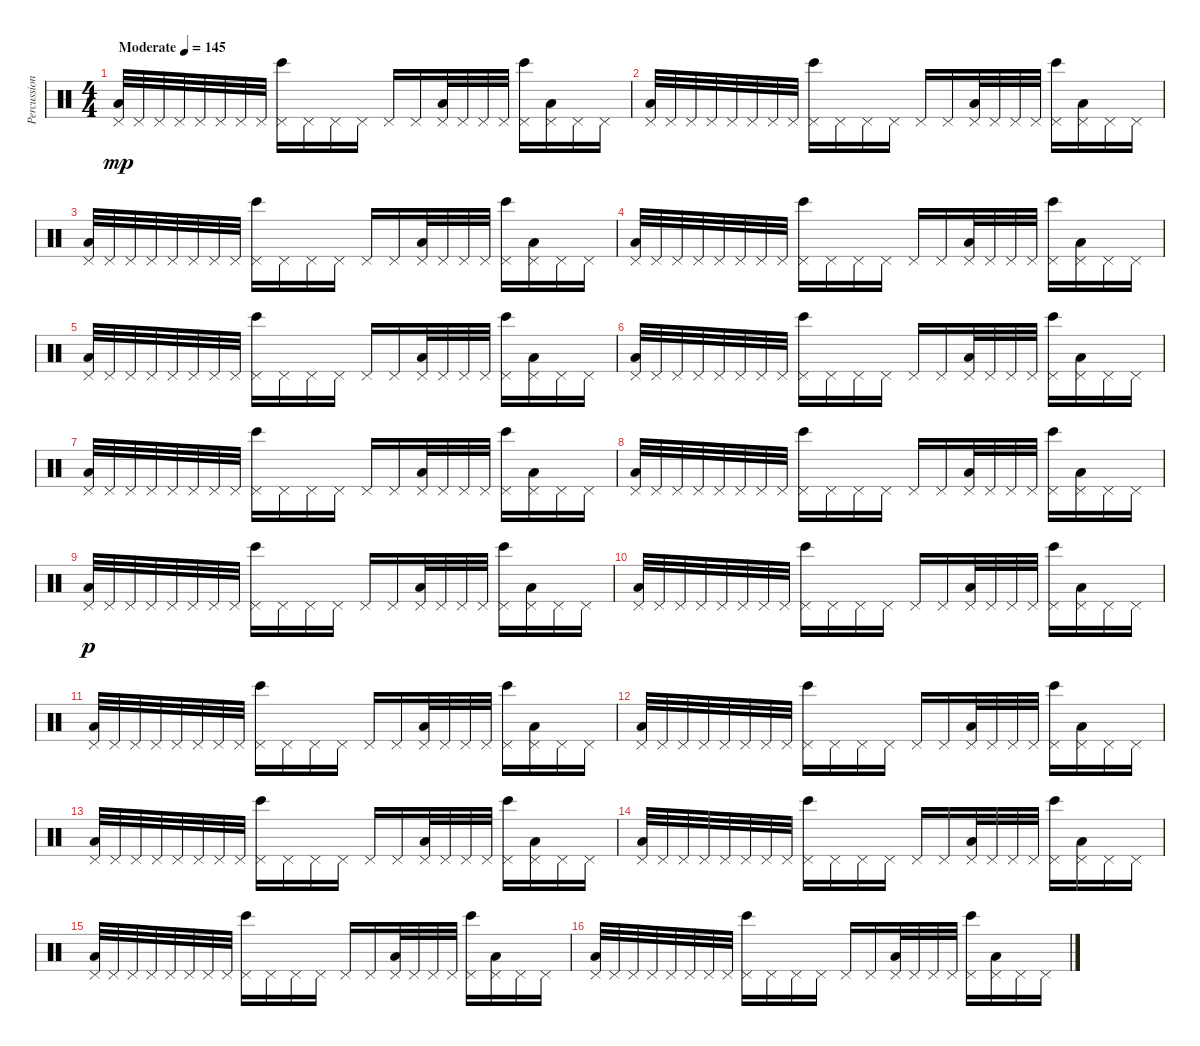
\track ("Percussion" "Percussion") {instrument percussion}
\staff {score}
\articulation defaults
\ts (4 4)
\tempo (145 "Moderate")
\clef neutral
\ks c
("Pedal Hi-Hat (hit)" "Low Tom (hit)").32{dy mp} "Pedal Hi-Hat (hit)".32 "Pedal Hi-Hat (hit)".32 "Pedal Hi-Hat (hit)".32 "Pedal Hi-Hat (hit)".32 "Pedal Hi-Hat (hit)".32 "Pedal Hi-Hat (hit)".32 "Pedal Hi-Hat (hit)".32 ("Pedal Hi-Hat (hit)" "Bongo High (hit)").16 "Pedal Hi-Hat (hit)".16 "Pedal Hi-Hat (hit)".16 "Pedal Hi-Hat (hit)".16 "Pedal Hi-Hat (hit)".16 "Pedal Hi-Hat (hit)".16 ("Pedal Hi-Hat (hit)" "Low Tom (hit)").32 "Pedal Hi-Hat (hit)".32 "Pedal Hi-Hat (hit)".32 "Pedal Hi-Hat (hit)".32 ("Pedal Hi-Hat (hit)" "Bongo High (hit)").16 ("Pedal Hi-Hat (hit)" "Low Tom (hit)").16 "Pedal Hi-Hat (hit)".16 "Pedal Hi-Hat (hit)".16 |
("Pedal Hi-Hat (hit)" "Low Tom (hit)").32 "Pedal Hi-Hat (hit)".32 "Pedal Hi-Hat (hit)".32 "Pedal Hi-Hat (hit)".32 "Pedal Hi-Hat (hit)".32 "Pedal Hi-Hat (hit)".32 "Pedal Hi-Hat (hit)".32 "Pedal Hi-Hat (hit)".32 ("Pedal Hi-Hat (hit)" "Bongo High (hit)").16 "Pedal Hi-Hat (hit)".16 "Pedal Hi-Hat (hit)".16 "Pedal Hi-Hat (hit)".16 "Pedal Hi-Hat (hit)".16 "Pedal Hi-Hat (hit)".16 ("Pedal Hi-Hat (hit)" "Low Tom (hit)").32 "Pedal Hi-Hat (hit)".32 "Pedal Hi-Hat (hit)".32 "Pedal Hi-Hat (hit)".32 ("Pedal Hi-Hat (hit)" "Bongo High (hit)").16 ("Pedal Hi-Hat (hit)" "Low Tom (hit)").16 "Pedal Hi-Hat (hit)".16 "Pedal Hi-Hat (hit)".16 |
("Pedal Hi-Hat (hit)" "Low Tom (hit)").32 "Pedal Hi-Hat (hit)".32 "Pedal Hi-Hat (hit)".32 "Pedal Hi-Hat (hit)".32 "Pedal Hi-Hat (hit)".32 "Pedal Hi-Hat (hit)".32 "Pedal Hi-Hat (hit)".32 "Pedal Hi-Hat (hit)".32 ("Pedal Hi-Hat (hit)" "Bongo High (hit)").16 "Pedal Hi-Hat (hit)".16 "Pedal Hi-Hat (hit)".16 "Pedal Hi-Hat (hit)".16 "Pedal Hi-Hat (hit)".16 "Pedal Hi-Hat (hit)".16 ("Pedal Hi-Hat (hit)" "Low Tom (hit)").32 "Pedal Hi-Hat (hit)".32 "Pedal Hi-Hat (hit)".32 "Pedal Hi-Hat (hit)".32 ("Pedal Hi-Hat (hit)" "Bongo High (hit)").16 ("Pedal Hi-Hat (hit)" "Low Tom (hit)").16 "Pedal Hi-Hat (hit)".16 "Pedal Hi-Hat (hit)".16 |
("Pedal Hi-Hat (hit)" "Low Tom (hit)").32 "Pedal Hi-Hat (hit)".32 "Pedal Hi-Hat (hit)".32 "Pedal Hi-Hat (hit)".32 "Pedal Hi-Hat (hit)".32 "Pedal Hi-Hat (hit)".32 "Pedal Hi-Hat (hit)".32 "Pedal Hi-Hat (hit)".32 ("Pedal Hi-Hat (hit)" "Bongo High (hit)").16 "Pedal Hi-Hat (hit)".16 "Pedal Hi-Hat (hit)".16 "Pedal Hi-Hat (hit)".16 "Pedal Hi-Hat (hit)".16 "Pedal Hi-Hat (hit)".16 ("Pedal Hi-Hat (hit)" "Low Tom (hit)").32 "Pedal Hi-Hat (hit)".32 "Pedal Hi-Hat (hit)".32 "Pedal Hi-Hat (hit)".32 ("Pedal Hi-Hat (hit)" "Bongo High (hit)").16 ("Pedal Hi-Hat (hit)" "Low Tom (hit)").16 "Pedal Hi-Hat (hit)".16 "Pedal Hi-Hat (hit)".16 |
("Pedal Hi-Hat (hit)" "Low Tom (hit)").32 "Pedal Hi-Hat (hit)".32 "Pedal Hi-Hat (hit)".32 "Pedal Hi-Hat (hit)".32 "Pedal Hi-Hat (hit)".32 "Pedal Hi-Hat (hit)".32 "Pedal Hi-Hat (hit)".32 "Pedal Hi-Hat (hit)".32 ("Pedal Hi-Hat (hit)" "Bongo High (hit)").16 "Pedal Hi-Hat (hit)".16 "Pedal Hi-Hat (hit)".16 "Pedal Hi-Hat (hit)".16 "Pedal Hi-Hat (hit)".16 "Pedal Hi-Hat (hit)".16 ("Pedal Hi-Hat (hit)" "Low Tom (hit)").32 "Pedal Hi-Hat (hit)".32 "Pedal Hi-Hat (hit)".32 "Pedal Hi-Hat (hit)".32 ("Pedal Hi-Hat (hit)" "Bongo High (hit)").16 ("Pedal Hi-Hat (hit)" "Low Tom (hit)").16 "Pedal Hi-Hat (hit)".16 "Pedal Hi-Hat (hit)".16 |
("Pedal Hi-Hat (hit)" "Low Tom (hit)").32 "Pedal Hi-Hat (hit)".32 "Pedal Hi-Hat (hit)".32 "Pedal Hi-Hat (hit)".32 "Pedal Hi-Hat (hit)".32 "Pedal Hi-Hat (hit)".32 "Pedal Hi-Hat (hit)".32 "Pedal Hi-Hat (hit)".32 ("Pedal Hi-Hat (hit)" "Bongo High (hit)").16 "Pedal Hi-Hat (hit)".16 "Pedal Hi-Hat (hit)".16 "Pedal Hi-Hat (hit)".16 "Pedal Hi-Hat (hit)".16 "Pedal Hi-Hat (hit)".16 ("Pedal Hi-Hat (hit)" "Low Tom (hit)").32 "Pedal Hi-Hat (hit)".32 "Pedal Hi-Hat (hit)".32 "Pedal Hi-Hat (hit)".32 ("Pedal Hi-Hat (hit)" "Bongo High (hit)").16 ("Pedal Hi-Hat (hit)" "Low Tom (hit)").16 "Pedal Hi-Hat (hit)".16 "Pedal Hi-Hat (hit)".16 |
("Pedal Hi-Hat (hit)" "Low Tom (hit)").32 "Pedal Hi-Hat (hit)".32 "Pedal Hi-Hat (hit)".32 "Pedal Hi-Hat (hit)".32 "Pedal Hi-Hat (hit)".32 "Pedal Hi-Hat (hit)".32 "Pedal Hi-Hat (hit)".32 "Pedal Hi-Hat (hit)".32 ("Pedal Hi-Hat (hit)" "Bongo High (hit)").16 "Pedal Hi-Hat (hit)".16 "Pedal Hi-Hat (hit)".16 "Pedal Hi-Hat (hit)".16 "Pedal Hi-Hat (hit)".16 "Pedal Hi-Hat (hit)".16 ("Pedal Hi-Hat (hit)" "Low Tom (hit)").32 "Pedal Hi-Hat (hit)".32 "Pedal Hi-Hat (hit)".32 "Pedal Hi-Hat (hit)".32 ("Pedal Hi-Hat (hit)" "Bongo High (hit)").16 ("Pedal Hi-Hat (hit)" "Low Tom (hit)").16 "Pedal Hi-Hat (hit)".16 "Pedal Hi-Hat (hit)".16 |
("Pedal Hi-Hat (hit)" "Low Tom (hit)").32 "Pedal Hi-Hat (hit)".32 "Pedal Hi-Hat (hit)".32 "Pedal Hi-Hat (hit)".32 "Pedal Hi-Hat (hit)".32 "Pedal Hi-Hat (hit)".32 "Pedal Hi-Hat (hit)".32 "Pedal Hi-Hat (hit)".32 ("Pedal Hi-Hat (hit)" "Bongo High (hit)").16 "Pedal Hi-Hat (hit)".16 "Pedal Hi-Hat (hit)".16 "Pedal Hi-Hat (hit)".16 "Pedal Hi-Hat (hit)".16 "Pedal Hi-Hat (hit)".16 ("Pedal Hi-Hat (hit)" "Low Tom (hit)").32 "Pedal Hi-Hat (hit)".32 "Pedal Hi-Hat (hit)".32 "Pedal Hi-Hat (hit)".32 ("Pedal Hi-Hat (hit)" "Bongo High (hit)").16 ("Pedal Hi-Hat (hit)" "Low Tom (hit)").16 "Pedal Hi-Hat (hit)".16 "Pedal Hi-Hat (hit)".16 |
("Pedal Hi-Hat (hit)" "Low Tom (hit)").32{dy p} "Pedal Hi-Hat (hit)".32 "Pedal Hi-Hat (hit)".32 "Pedal Hi-Hat (hit)".32 "Pedal Hi-Hat (hit)".32 "Pedal Hi-Hat (hit)".32 "Pedal Hi-Hat (hit)".32 "Pedal Hi-Hat (hit)".32 ("Pedal Hi-Hat (hit)" "Bongo High (hit)").16 "Pedal Hi-Hat (hit)".16 "Pedal Hi-Hat (hit)".16 "Pedal Hi-Hat (hit)".16 "Pedal Hi-Hat (hit)".16 "Pedal Hi-Hat (hit)".16 ("Pedal Hi-Hat (hit)" "Low Tom (hit)").32 "Pedal Hi-Hat (hit)".32 "Pedal Hi-Hat (hit)".32 "Pedal Hi-Hat (hit)".32 ("Pedal Hi-Hat (hit)" "Bongo High (hit)").16 ("Pedal Hi-Hat (hit)" "Low Tom (hit)").16 "Pedal Hi-Hat (hit)".16 "Pedal Hi-Hat (hit)".16 |
("Pedal Hi-Hat (hit)" "Low Tom (hit)").32 "Pedal Hi-Hat (hit)".32 "Pedal Hi-Hat (hit)".32 "Pedal Hi-Hat (hit)".32 "Pedal Hi-Hat (hit)".32 "Pedal Hi-Hat (hit)".32 "Pedal Hi-Hat (hit)".32 "Pedal Hi-Hat (hit)".32 ("Pedal Hi-Hat (hit)" "Bongo High (hit)").16 "Pedal Hi-Hat (hit)".16 "Pedal Hi-Hat (hit)".16 "Pedal Hi-Hat (hit)".16 "Pedal Hi-Hat (hit)".16 "Pedal Hi-Hat (hit)".16 ("Pedal Hi-Hat (hit)" "Low Tom (hit)").32 "Pedal Hi-Hat (hit)".32 "Pedal Hi-Hat (hit)".32 "Pedal Hi-Hat (hit)".32 ("Pedal Hi-Hat (hit)" "Bongo High (hit)").16 ("Pedal Hi-Hat (hit)" "Low Tom (hit)").16 "Pedal Hi-Hat (hit)".16 "Pedal Hi-Hat (hit)".16 |
("Pedal Hi-Hat (hit)" "Low Tom (hit)").32 "Pedal Hi-Hat (hit)".32 "Pedal Hi-Hat (hit)".32 "Pedal Hi-Hat (hit)".32 "Pedal Hi-Hat (hit)".32 "Pedal Hi-Hat (hit)".32 "Pedal Hi-Hat (hit)".32 "Pedal Hi-Hat (hit)".32 ("Pedal Hi-Hat (hit)" "Bongo High (hit)").16 "Pedal Hi-Hat (hit)".16 "Pedal Hi-Hat (hit)".16 "Pedal Hi-Hat (hit)".16 "Pedal Hi-Hat (hit)".16 "Pedal Hi-Hat (hit)".16 ("Pedal Hi-Hat (hit)" "Low Tom (hit)").32 "Pedal Hi-Hat (hit)".32 "Pedal Hi-Hat (hit)".32 "Pedal Hi-Hat (hit)".32 ("Pedal Hi-Hat (hit)" "Bongo High (hit)").16 ("Pedal Hi-Hat (hit)" "Low Tom (hit)").16 "Pedal Hi-Hat (hit)".16 "Pedal Hi-Hat (hit)".16 |
("Pedal Hi-Hat (hit)" "Low Tom (hit)").32 "Pedal Hi-Hat (hit)".32 "Pedal Hi-Hat (hit)".32 "Pedal Hi-Hat (hit)".32 "Pedal Hi-Hat (hit)".32 "Pedal Hi-Hat (hit)".32 "Pedal Hi-Hat (hit)".32 "Pedal Hi-Hat (hit)".32 ("Pedal Hi-Hat (hit)" "Bongo High (hit)").16 "Pedal Hi-Hat (hit)".16 "Pedal Hi-Hat (hit)".16 "Pedal Hi-Hat (hit)".16 "Pedal Hi-Hat (hit)".16 "Pedal Hi-Hat (hit)".16 ("Pedal Hi-Hat (hit)" "Low Tom (hit)").32 "Pedal Hi-Hat (hit)".32 "Pedal Hi-Hat (hit)".32 "Pedal Hi-Hat (hit)".32 ("Pedal Hi-Hat (hit)" "Bongo High (hit)").16 ("Pedal Hi-Hat (hit)" "Low Tom (hit)").16 "Pedal Hi-Hat (hit)".16 "Pedal Hi-Hat (hit)".16 |
("Pedal Hi-Hat (hit)" "Low Tom (hit)").32 "Pedal Hi-Hat (hit)".32 "Pedal Hi-Hat (hit)".32 "Pedal Hi-Hat (hit)".32 "Pedal Hi-Hat (hit)".32 "Pedal Hi-Hat (hit)".32 "Pedal Hi-Hat (hit)".32 "Pedal Hi-Hat (hit)".32 ("Pedal Hi-Hat (hit)" "Bongo High (hit)").16 "Pedal Hi-Hat (hit)".16 "Pedal Hi-Hat (hit)".16 "Pedal Hi-Hat (hit)".16 "Pedal Hi-Hat (hit)".16 "Pedal Hi-Hat (hit)".16 ("Pedal Hi-Hat (hit)" "Low Tom (hit)").32 "Pedal Hi-Hat (hit)".32 "Pedal Hi-Hat (hit)".32 "Pedal Hi-Hat (hit)".32 ("Pedal Hi-Hat (hit)" "Bongo High (hit)").16 ("Pedal Hi-Hat (hit)" "Low Tom (hit)").16 "Pedal Hi-Hat (hit)".16 "Pedal Hi-Hat (hit)".16 |
("Pedal Hi-Hat (hit)" "Low Tom (hit)").32 "Pedal Hi-Hat (hit)".32 "Pedal Hi-Hat (hit)".32 "Pedal Hi-Hat (hit)".32 "Pedal Hi-Hat (hit)".32 "Pedal Hi-Hat (hit)".32 "Pedal Hi-Hat (hit)".32 "Pedal Hi-Hat (hit)".32 ("Pedal Hi-Hat (hit)" "Bongo High (hit)").16 "Pedal Hi-Hat (hit)".16 "Pedal Hi-Hat (hit)".16 "Pedal Hi-Hat (hit)".16 "Pedal Hi-Hat (hit)".16 "Pedal Hi-Hat (hit)".16 ("Pedal Hi-Hat (hit)" "Low Tom (hit)").32 "Pedal Hi-Hat (hit)".32 "Pedal Hi-Hat (hit)".32 "Pedal Hi-Hat (hit)".32 ("Pedal Hi-Hat (hit)" "Bongo High (hit)").16 ("Pedal Hi-Hat (hit)" "Low Tom (hit)").16 "Pedal Hi-Hat (hit)".16 "Pedal Hi-Hat (hit)".16 |
("Pedal Hi-Hat (hit)" "Low Tom (hit)").32 "Pedal Hi-Hat (hit)".32 "Pedal Hi-Hat (hit)".32 "Pedal Hi-Hat (hit)".32 "Pedal Hi-Hat (hit)".32 "Pedal Hi-Hat (hit)".32 "Pedal Hi-Hat (hit)".32 "Pedal Hi-Hat (hit)".32 ("Pedal Hi-Hat (hit)" "Bongo High (hit)").16 "Pedal Hi-Hat (hit)".16 "Pedal Hi-Hat (hit)".16 "Pedal Hi-Hat (hit)".16 "Pedal Hi-Hat (hit)".16 "Pedal Hi-Hat (hit)".16 ("Pedal Hi-Hat (hit)" "Low Tom (hit)").32 "Pedal Hi-Hat (hit)".32 "Pedal Hi-Hat (hit)".32 "Pedal Hi-Hat (hit)".32 ("Pedal Hi-Hat (hit)" "Bongo High (hit)").16 ("Pedal Hi-Hat (hit)" "Low Tom (hit)").16 "Pedal Hi-Hat (hit)".16 "Pedal Hi-Hat (hit)".16 |
("Pedal Hi-Hat (hit)" "Low Tom (hit)").32 "Pedal Hi-Hat (hit)".32 "Pedal Hi-Hat (hit)".32 "Pedal Hi-Hat (hit)".32 "Pedal Hi-Hat (hit)".32 "Pedal Hi-Hat (hit)".32 "Pedal Hi-Hat (hit)".32 "Pedal Hi-Hat (hit)".32 ("Pedal Hi-Hat (hit)" "Bongo High (hit)").16 "Pedal Hi-Hat (hit)".16 "Pedal Hi-Hat (hit)".16 "Pedal Hi-Hat (hit)".16 "Pedal Hi-Hat (hit)".16 "Pedal Hi-Hat (hit)".16 ("Pedal Hi-Hat (hit)" "Low Tom (hit)").32 "Pedal Hi-Hat (hit)".32 "Pedal Hi-Hat (hit)".32 "Pedal Hi-Hat (hit)".32 ("Pedal Hi-Hat (hit)" "Bongo High (hit)").16 ("Pedal Hi-Hat (hit)" "Low Tom (hit)").16 "Pedal Hi-Hat (hit)".16 "Pedal Hi-Hat (hit)".16
